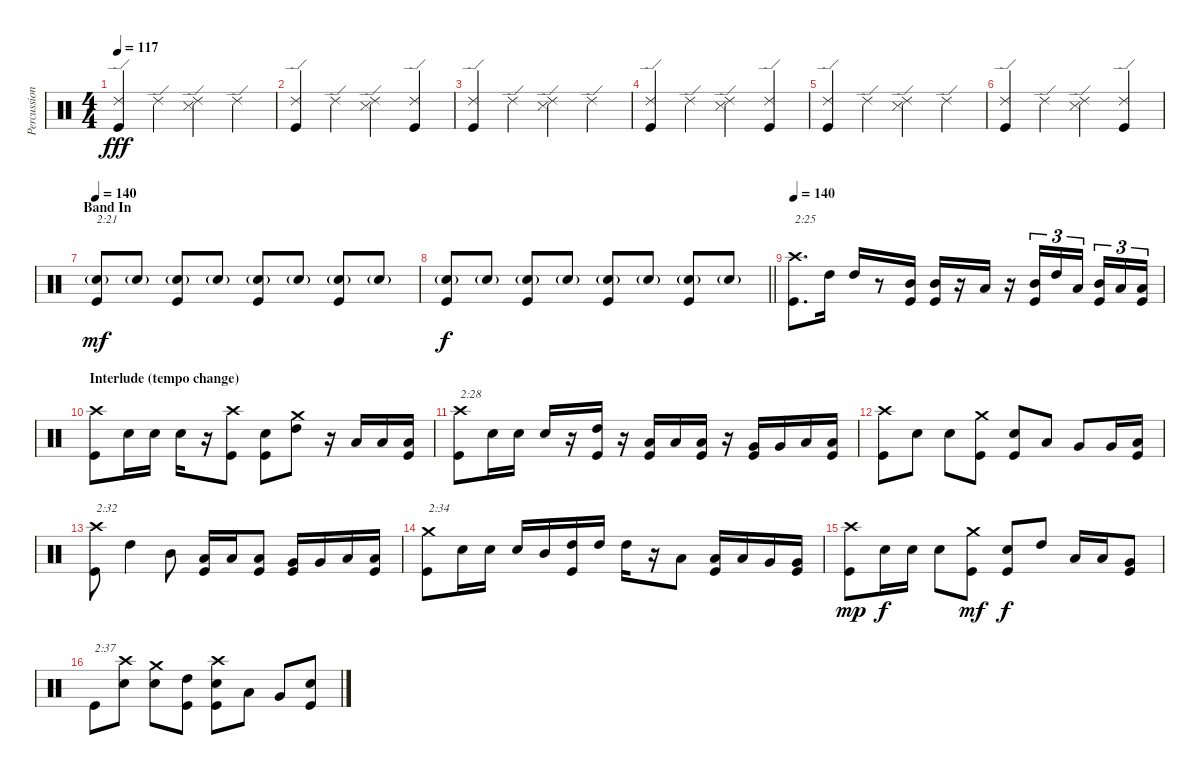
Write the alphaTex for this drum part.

\track ("Percussion" "Percussion") {instrument percussion}
\staff {score}
\articulation defaults
\ts (4 4)
\tempo 117
\clef neutral
\ks c
("Ride (edge) 2" "Kick (hit)").4{dy fff} "Ride (edge) 2".4 ("Ride (edge) 2" "Snare (side stick) 3").4 "Ride (edge) 2".4 |
("Ride (edge) 2" "Kick (hit)").4 "Ride (edge) 2".4 ("Ride (edge) 2" "Snare (side stick) 3").4 ("Ride (edge) 2" "Kick (hit)").4 |
("Ride (edge) 2" "Kick (hit)").4 "Ride (edge) 2".4 ("Ride (edge) 2" "Snare (side stick) 3").4 "Ride (edge) 2".4 |
("Ride (edge) 2" "Kick (hit)").4 "Ride (edge) 2".4 ("Ride (edge) 2" "Snare (side stick) 3").4 ("Ride (edge) 2" "Kick (hit)").4 |
("Ride (edge) 2" "Kick (hit)").4 "Ride (edge) 2".4 ("Ride (edge) 2" "Snare (side stick) 3").4 "Ride (edge) 2".4 |
("Ride (edge) 2" "Kick (hit)").4 "Ride (edge) 2".4 ("Ride (edge) 2" "Snare (side stick) 3").4 ("Ride (edge) 2" "Kick (hit)").4 |
\section ("" "Band In")
\tempo 140
("Electric Snare (hit)"{g} "Kick (hit)").8{txt "2:21" dy mf} "Electric Snare (hit)"{g}.8 ("Electric Snare (hit)"{g} "Kick (hit)").8 "Electric Snare (hit)"{g}.8 ("Electric Snare (hit)"{g} "Kick (hit)").8 "Electric Snare (hit)"{g}.8 ("Electric Snare (hit)"{g} "Kick (hit)").8 "Electric Snare (hit)"{g}.8 |
\barLineRight lightlight
("Electric Snare (hit)"{g} "Kick (hit)").8{dy f} "Electric Snare (hit)"{g}.8 ("Electric Snare (hit)"{g} "Kick (hit)").8 "Electric Snare (hit)"{g}.8 ("Electric Snare (hit)"{g} "Kick (hit)").8 "Electric Snare (hit)"{g}.8 ("Electric Snare (hit)"{g} "Kick (hit)").8 "Electric Snare (hit)"{g}.8 |
\tempo 140
("Crash high (hit)" "Kick (hit)").8{d txt "2:25"} "High Tom (hit)".16 "High Tom (hit)".16 r.8 ("Mid Tom (hit)" "Kick (hit)").16 ("Mid Tom (hit)" "Kick (hit)").16 r.16 "Low Tom (hit)".16 r.16 ("Mid Tom (hit)" "Kick (hit)").16{tu (3 2)} "High Tom (hit)".16{tu (3 2)} "Low Tom (hit)".16{tu (3 2)} ("Mid Tom (hit)" "Kick (hit)").16{tu (3 2)} "Low Tom (hit)".16{tu (3 2)} ("Low Tom (hit)" "Kick (hit)").16{tu (3 2)} |
\section ("" "Interlude (tempo change)")
("Crash high (hit)" "Kick (hit)").8 "Electric Snare (hit)".16 "Electric Snare (hit)".16 "Electric Snare (hit)".16 r.16 ("Crash high (hit)" "Kick (hit)").8 ("Electric Snare (hit)" "Kick (hit)").8 ("Crash medium (hit)" "High Tom (hit)").8 r.16 "Low Tom (hit)".16 "Low Tom (hit)".16 ("Low Tom (hit)" "Kick (hit)").16 |
("Crash high (hit)" "Kick (hit)").8{txt "2:28"} "Electric Snare (hit)".16 "Electric Snare (hit)".16 "Electric Snare (hit)".16 r.16 ("High Tom (hit)" "Kick (hit)").16 r.16 ("Low Tom (hit)" "Kick (hit)").16 "Low Tom (hit)".16 ("Low Tom (hit)" "Kick (hit)").16 r.16 ("Very Low Tom (hit)" "Kick (hit)").16 "Very Low Tom (hit)".16 "Low Floor Tom (hit)".16 ("Low Floor Tom (hit)" "Kick (hit)").16 |
("Crash high (hit)" "Kick (hit)").8 "Electric Snare (hit)".8 "Electric Snare (hit)".8 ("Crash medium (hit)" "Kick (hit)").8 ("Electric Snare (hit)" "Kick (hit)").8 "Low Tom (hit)".8 "Very Low Tom (hit)".8 "Very Low Tom (hit)".16 ("Low Floor Tom (hit)" "Kick (hit)").16 |
("Crash high (hit)" "Kick (hit)").8{txt "2:32"} "High Tom (hit)".4 "Mid Tom (hit)".8 ("Low Tom (hit)" "Kick (hit)").16 "Low Tom (hit)".16 ("Low Tom (hit)" "Kick (hit)").8 ("Very Low Tom (hit)" "Kick (hit)").16 "Very Low Tom (hit)".16 "Low Floor Tom (hit)".16 ("Low Floor Tom (hit)" "Kick (hit)").16 |
("Crash medium (hit)" "Kick (hit)").8{txt "2:34"} "Electric Snare (hit)".16 "Electric Snare (hit)".16 "Electric Snare (hit)".16 "Mid Tom (hit)".16 ("High Tom (hit)" "Kick (hit)").16 "High Tom (hit)".16 "High Tom (hit)".16 r.16 "Low Tom (hit)".8 ("Low Tom (hit)" "Kick (hit)").16 "Low Tom (hit)".16 "Very Low Tom (hit)".16 ("Very Low Tom (hit)" "Kick (hit)").16 |
("Crash high (hit)" "Kick (hit)").8{dy mp} "Electric Snare (hit)".16{dy f} "Electric Snare (hit)".16 "Electric Snare (hit)".8 ("Crash medium (hit)" "Kick (hit)").8{dy mf} ("Electric Snare (hit)" "Kick (hit)").8{dy f} "High Tom (hit)".8 "Low Tom (hit)".16 "Low Floor Tom (hit)".16 ("Very Low Tom (hit)" "Kick (hit)").8 |
"Kick (hit)".8{txt "2:37"} ("Crash high (hit)" "Electric Snare (hit)").8 ("Crash medium (hit)" "Electric Snare (hit)").8 ("High Tom (hit)" "Kick (hit)").8 ("Crash high (hit)" "Electric Snare (hit)" "Kick (hit)").8 "Low Tom (hit)".8 "Very Low Tom (hit)".8 ("Electric Snare (hit)" "Kick (hit)").8
